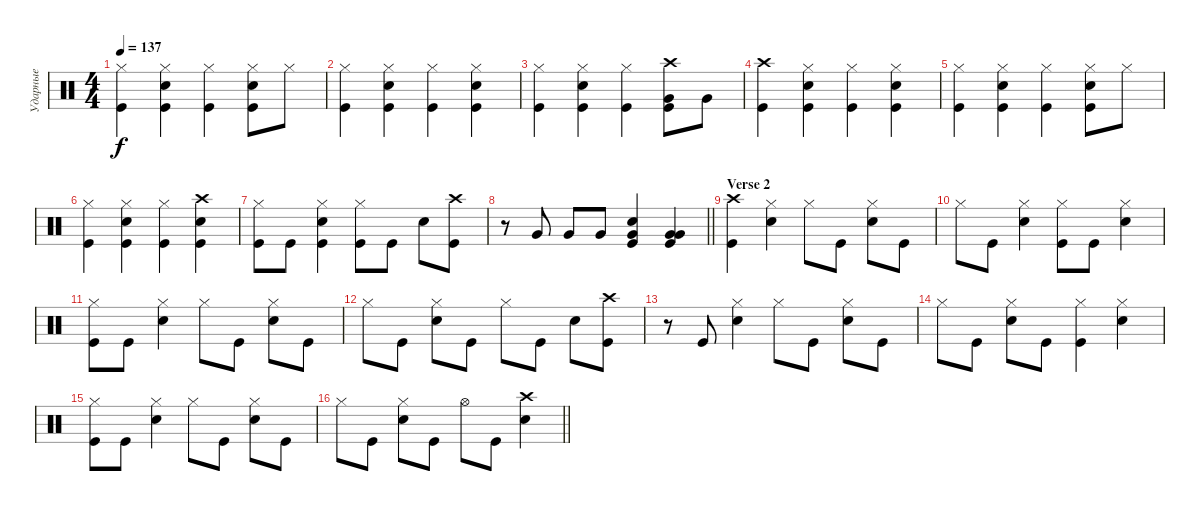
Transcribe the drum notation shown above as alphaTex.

\track ("Ударные" "Ударные") {instrument percussion}
\staff {score}
\articulation defaults
\ts (4 4)
\tempo 137
\clef neutral
\ks aminor
("Hi-Hat (closed)" "Kick (hit)").4{dy f} ("Snare (hit) 2" "Hi-Hat (closed)" "Kick (hit)").4 ("Kick (hit)" "Hi-Hat (closed)").4 ("Snare (hit) 2" "Hi-Hat (closed)" "Kick (hit)").8 "Hi-Hat (closed)".8 |
("Kick (hit)" "Hi-Hat (closed)").4 ("Snare (hit) 2" "Hi-Hat (closed)" "Kick (hit)").4 ("Kick (hit)" "Hi-Hat (closed)").4 ("Snare (hit) 2" "Hi-Hat (closed)" "Kick (hit)").4 |
("Kick (hit)" "Hi-Hat (closed)").4 ("Snare (hit) 2" "Hi-Hat (closed)" "Kick (hit)").4 ("Kick (hit)" "Hi-Hat (closed)").4 ("Kick (hit)" "Very Low Tom (hit)" "Crash high (hit)").8 "Very Low Tom (hit)".8 |
("Kick (hit)" "Crash high (hit)").4 ("Snare (hit) 2" "Hi-Hat (closed)" "Kick (hit)").4 ("Kick (hit)" "Hi-Hat (closed)").4 ("Snare (hit) 2" "Hi-Hat (closed)" "Kick (hit)").4 |
("Hi-Hat (closed)" "Kick (hit)").4 ("Snare (hit) 2" "Hi-Hat (closed)" "Kick (hit)").4 ("Kick (hit)" "Hi-Hat (closed)").4 ("Snare (hit) 2" "Hi-Hat (closed)" "Kick (hit)").8 "Hi-Hat (closed)".8 |
("Kick (hit)" "Hi-Hat (closed)").4 ("Snare (hit) 2" "Hi-Hat (closed)" "Kick (hit)").4 ("Kick (hit)" "Hi-Hat (closed)").4 ("Snare (hit) 2" "Crash high (hit)" "Kick (hit)").4 |
("Kick (hit)" "Hi-Hat (closed)").8 "Kick (hit)".8 ("Snare (hit) 2" "Hi-Hat (closed)" "Kick (hit)").4 ("Kick (hit)" "Hi-Hat (closed)").8 "Kick (hit)".8 "Snare (hit) 2".8 ("Kick (hit)" "Crash high (hit)").8 |
\barLineRight lightlight
r.8 "Very Low Tom (hit)".8 "Very Low Tom (hit)".8 "Very Low Tom (hit)".8 ("Very Low Tom (hit)" "Kick (hit)" "Snare (hit) 2").4{bd 60} ("Kick (hit)" "Very Low Tom (hit)" "Very Low Tom (hit)").4{bd 60} |
\section ("" "Verse 2")
("Kick (hit)" "Crash high (hit)").4 ("Snare (hit) 2" "Hi-Hat (closed)").4 "Hi-Hat (closed)".8 "Kick (hit)".8 ("Snare (hit) 2" "Hi-Hat (closed)").8 "Kick (hit)".8 |
"Hi-Hat (closed)".8 "Kick (hit)".8 ("Snare (hit) 2" "Hi-Hat (closed)").4 ("Kick (hit)" "Hi-Hat (closed)").8 "Kick (hit)".8 ("Snare (hit) 2" "Hi-Hat (closed)").4 |
("Kick (hit)" "Hi-Hat (closed)").8 "Kick (hit)".8 ("Snare (hit) 2" "Hi-Hat (closed)").4 "Hi-Hat (closed)".8 "Kick (hit)".8 ("Snare (hit) 2" "Hi-Hat (closed)").8 "Kick (hit)".8 |
"Hi-Hat (closed)".8 "Kick (hit)".8 ("Snare (hit) 2" "Hi-Hat (closed)").8 "Kick (hit)".8 "Hi-Hat (closed)".8 "Kick (hit)".8 "Snare (hit) 2".8 ("Kick (hit)" "Crash high (hit)").8 |
r.8 "Kick (hit)".8 ("Snare (hit) 2" "Hi-Hat (closed)").4 "Hi-Hat (closed)".8 "Kick (hit)".8 ("Snare (hit) 2" "Hi-Hat (closed)").8 "Kick (hit)".8 |
"Hi-Hat (closed)".8 "Kick (hit)".8 ("Snare (hit) 2" "Hi-Hat (closed)").8 "Kick (hit)".8 ("Kick (hit)" "Hi-Hat (closed)").4 ("Snare (hit) 2" "Hi-Hat (closed)").4 |
("Kick (hit)" "Hi-Hat (closed)").8 "Kick (hit)".8 ("Snare (hit) 2" "Hi-Hat (closed)").4 "Hi-Hat (closed)".8 "Kick (hit)".8 ("Snare (hit) 2" "Hi-Hat (closed)").8 "Kick (hit)".8 |
\barLineRight lightlight "Hi-Hat (closed)".8 "Kick (hit)".8
("Snare (hit) 2" "Hi-Hat (closed)").8 "Kick (hit)".8 "Hi-Hat (open)".8 "Kick (hit)".8 ("Snare (hit) 2" "Crash high (hit)").4
